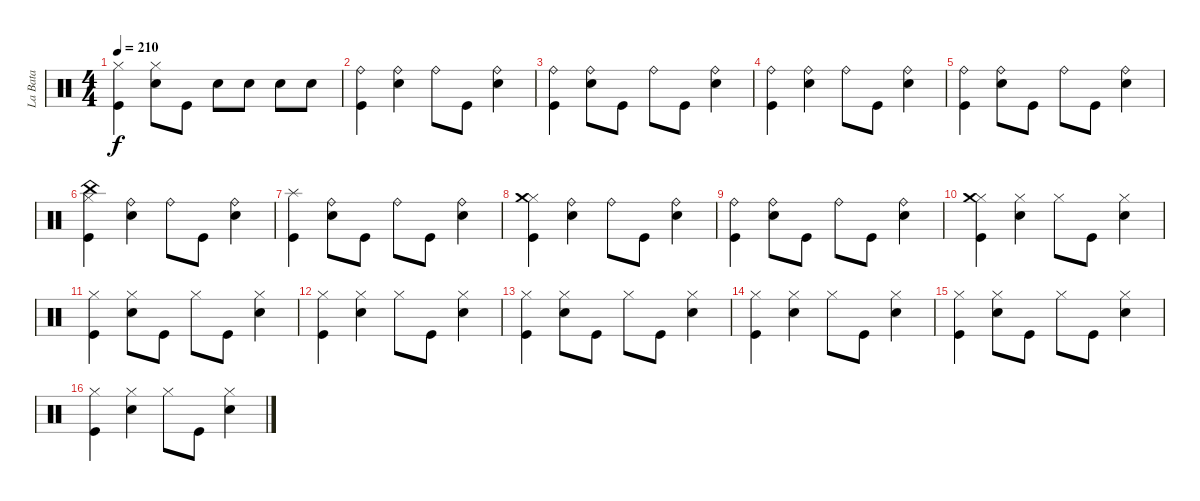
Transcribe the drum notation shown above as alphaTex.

\track ("La Bata" "La Bata") {instrument percussion}
\staff {score}
\articulation defaults
\ts (4 4)
\tempo 210
\clef neutral
\ks c
("Hi-Hat (closed)" "Kick (hit)").4{dy f} ("Snare (hit) 2" "Hi-Hat (closed)").8 "Kick (hit)".8 "Snare (hit) 2".8 "Snare (hit) 2".8 "Snare (hit) 2".8 "Snare (hit) 2".8 |
("Kick (hit)" "Ride (bell)").4 ("Snare (hit) 2" "Ride (bell)").4 "Ride (bell)".8 "Kick (hit)".8 ("Snare (hit) 2" "Ride (bell)").4 |
("Ride (bell)" "Kick (hit)").4 ("Snare (hit) 2" "Ride (bell)").8 "Kick (hit)".8 "Ride (bell)".8 "Kick (hit)".8 ("Ride (bell)" "Snare (hit) 2").4 |
("Kick (hit)" "Ride (bell)").4 ("Snare (hit) 2" "Ride (bell)").4 "Ride (bell)".8 "Kick (hit)".8 ("Snare (hit) 2" "Ride (bell)").4 |
("Ride (bell)" "Kick (hit)").4 ("Snare (hit) 2" "Ride (bell)").8 "Kick (hit)".8 "Ride (bell)".8 "Kick (hit)".8 ("Ride (bell)" "Snare (hit) 2").4 |
("Kick (hit)" "Hi-Hat (closed)" "China (hit)").4 ("Snare (hit) 2" "Ride (bell)").4 "Ride (bell)".8 "Kick (hit)".8 ("Snare (hit) 2" "Ride (bell)").4 |
("Kick (hit)" "Splash (hit)").4 ("Snare (hit) 2" "Ride (bell)").8 "Kick (hit)".8 "Ride (bell)".8 "Kick (hit)".8 ("Ride (bell)" "Snare (hit) 2").4 |
("Kick (hit)" "Hi-Hat (closed)" "Crash medium (hit)").4 ("Snare (hit) 2" "Ride (bell)").4 "Ride (bell)".8 "Kick (hit)".8 ("Snare (hit) 2" "Ride (bell)").4 |
("Ride (bell)" "Kick (hit)").4 ("Snare (hit) 2" "Ride (bell)").8 "Kick (hit)".8 "Ride (bell)".8 "Kick (hit)".8 ("Ride (bell)" "Snare (hit) 2").4 |
("Kick (hit)" "Hi-Hat (closed)" "Crash medium (hit)").4 ("Snare (hit) 2" "Hi-Hat (closed)").4 "Hi-Hat (closed)".8 "Kick (hit)".8 ("Snare (hit) 2" "Hi-Hat (closed)").4 |
("Hi-Hat (closed)" "Kick (hit)").4 ("Snare (hit) 2" "Hi-Hat (closed)").8 "Kick (hit)".8 "Hi-Hat (closed)".8 "Kick (hit)".8 ("Hi-Hat (closed)" "Snare (hit) 2").4 |
("Kick (hit)" "Hi-Hat (closed)").4 ("Snare (hit) 2" "Hi-Hat (closed)").4 "Hi-Hat (closed)".8 "Kick (hit)".8 ("Snare (hit) 2" "Hi-Hat (closed)").4 |
("Hi-Hat (closed)" "Kick (hit)").4 ("Snare (hit) 2" "Hi-Hat (closed)").8 "Kick (hit)".8 "Hi-Hat (closed)".8 "Kick (hit)".8 ("Hi-Hat (closed)" "Snare (hit) 2").4 |
("Kick (hit)" "Hi-Hat (closed)").4 ("Snare (hit) 2" "Hi-Hat (closed)").4 "Hi-Hat (closed)".8 "Kick (hit)".8 ("Snare (hit) 2" "Hi-Hat (closed)").4 |
("Hi-Hat (closed)" "Kick (hit)").4 ("Snare (hit) 2" "Hi-Hat (closed)").8 "Kick (hit)".8 "Hi-Hat (closed)".8 "Kick (hit)".8 ("Hi-Hat (closed)" "Snare (hit) 2").4 |
("Kick (hit)" "Hi-Hat (closed)").4 ("Snare (hit) 2" "Hi-Hat (closed)").4 "Hi-Hat (closed)".8 "Kick (hit)".8 ("Snare (hit) 2" "Hi-Hat (closed)").4
